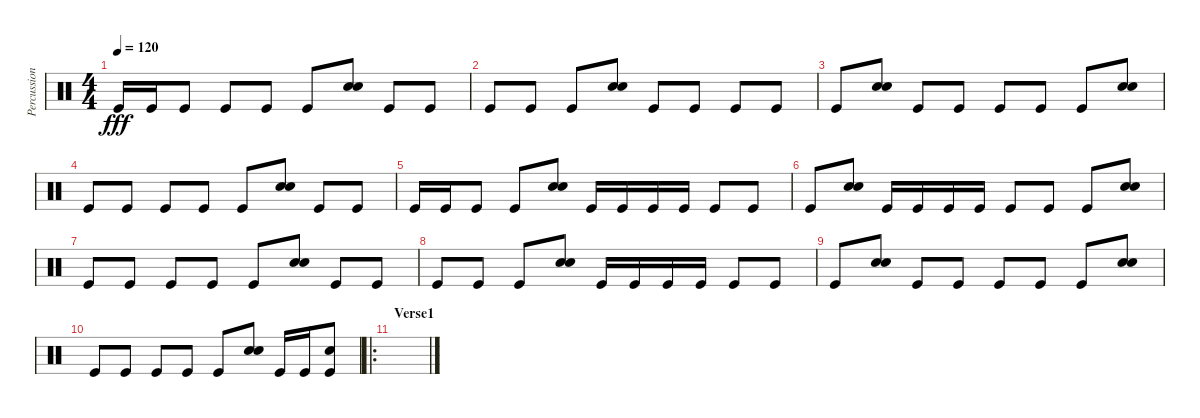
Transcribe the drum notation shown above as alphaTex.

\track ("Percussion" "Percussion") {instrument percussion}
\staff {score}
\articulation defaults
\ts (4 4)
\tempo 120
\clef neutral
\ks c "Kick (hit)".16{dy fff} "Kick (hit)".16 "Kick (hit)".8 "Kick (hit)".8 "Kick (hit)".8 "Kick (hit)".8
("Snare (hit) 2" "Electric Snare (hit)").8 "Kick (hit)".8 "Kick (hit)".8 |
"Kick (hit)".8 "Kick (hit)".8 "Kick (hit)".8 ("Snare (hit) 2" "Electric Snare (hit)").8 "Kick (hit)".8 "Kick (hit)".8 "Kick (hit)".8 "Kick (hit)".8 |
"Kick (hit)".8 ("Snare (hit) 2" "Electric Snare (hit)").8 "Kick (hit)".8 "Kick (hit)".8 "Kick (hit)".8 "Kick (hit)".8 "Kick (hit)".8 ("Snare (hit) 2" "Electric Snare (hit)").8 |
"Kick (hit)".8 "Kick (hit)".8 "Kick (hit)".8 "Kick (hit)".8 "Kick (hit)".8 ("Snare (hit) 2" "Electric Snare (hit)").8 "Kick (hit)".8 "Kick (hit)".8 |
"Kick (hit)".16 "Kick (hit)".16 "Kick (hit)".8 "Kick (hit)".8 ("Snare (hit) 2" "Electric Snare (hit)").8 "Kick (hit)".16 "Kick (hit)".16 "Kick (hit)".16 "Kick (hit)".16 "Kick (hit)".8 "Kick (hit)".8 |
"Kick (hit)".8 ("Snare (hit) 2" "Electric Snare (hit)").8 "Kick (hit)".16 "Kick (hit)".16 "Kick (hit)".16 "Kick (hit)".16 "Kick (hit)".8 "Kick (hit)".8 "Kick (hit)".8 ("Snare (hit) 2" "Electric Snare (hit)").8 |
"Kick (hit)".8 "Kick (hit)".8 "Kick (hit)".8 "Kick (hit)".8 "Kick (hit)".8 ("Snare (hit) 2" "Electric Snare (hit)").8 "Kick (hit)".8 "Kick (hit)".8 |
"Kick (hit)".8 "Kick (hit)".8 "Kick (hit)".8 ("Snare (hit) 2" "Electric Snare (hit)").8 "Kick (hit)".16 "Kick (hit)".16 "Kick (hit)".16 "Kick (hit)".16 "Kick (hit)".8 "Kick (hit)".8 |
"Kick (hit)".8 ("Snare (hit) 2" "Electric Snare (hit)").8 "Kick (hit)".8 "Kick (hit)".8 "Kick (hit)".8 "Kick (hit)".8 "Kick (hit)".8 ("Snare (hit) 2" "Electric Snare (hit)").8 |
"Kick (hit)".8 "Kick (hit)".8 "Kick (hit)".8 "Kick (hit)".8 "Kick (hit)".8 ("Snare (hit) 2" "Electric Snare (hit)").8 "Kick (hit)".16 "Kick (hit)".16 ("Snare (hit) 2" "Kick (hit)").8 |
\ro
\section ("" "Verse1")
